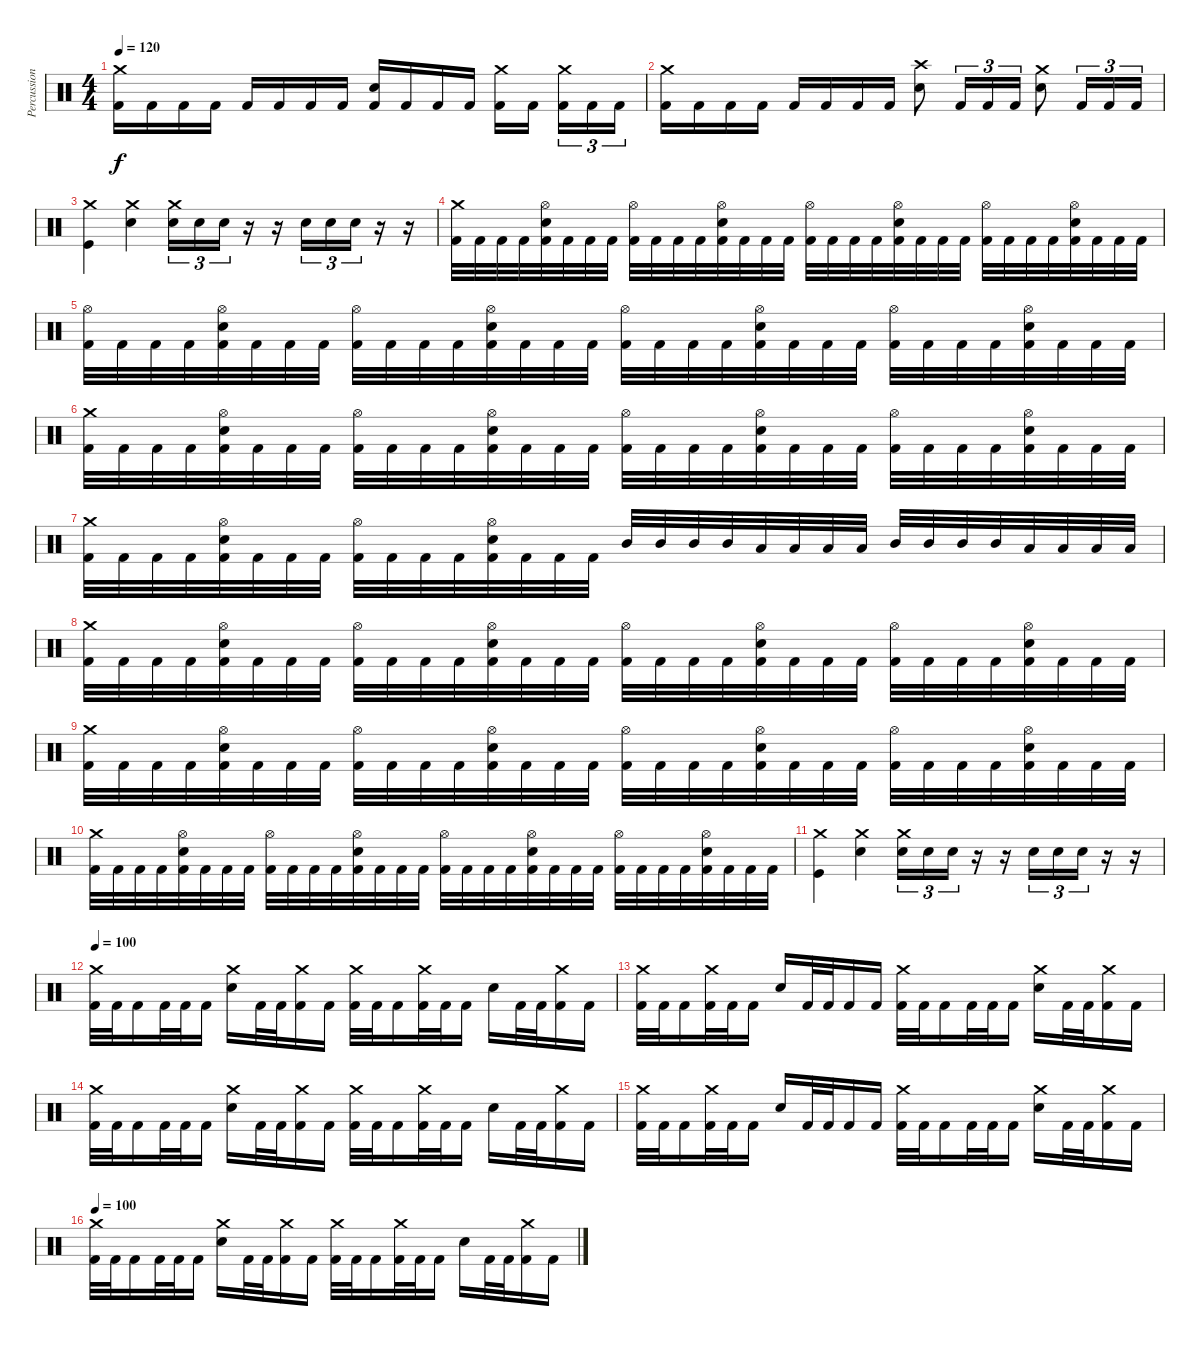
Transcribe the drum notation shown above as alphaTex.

\track ("Percussion" "Percussion") {instrument percussion}
\staff {score}
\articulation defaults
\ts (4 4)
\tempo 120
\clef neutral
\ks c
("Crash medium (hit)" "Kick (hit) 2").16{dy f} "Kick (hit) 2".16 "Kick (hit) 2".16 "Kick (hit) 2".16 "Kick (hit) 2".16 "Kick (hit) 2".16 "Kick (hit) 2".16 "Kick (hit) 2".16 ("Kick (hit) 2" "Electric Snare (hit)").16 "Kick (hit) 2".16 "Kick (hit) 2".16 "Kick (hit) 2".16 ("Crash medium (hit)" "Kick (hit) 2").16 "Kick (hit) 2".16{beam splitsecondary} ("Crash medium (hit)" "Kick (hit) 2").16{tu (3 2)} "Kick (hit) 2".16{tu (3 2)} "Kick (hit) 2".16{tu (3 2)} |
("Crash medium (hit)" "Kick (hit) 2").16 "Kick (hit) 2".16 "Kick (hit) 2".16 "Kick (hit) 2".16 "Kick (hit) 2".16 "Kick (hit) 2".16 "Kick (hit) 2".16 "Kick (hit) 2".16 ("Crash high (hit)" "Snare (hit) 2").8 "Kick (hit) 2".16{tu (3 2)} "Kick (hit) 2".16{tu (3 2)} "Kick (hit) 2".16{tu (3 2)} ("Crash medium (hit)" "Snare (hit) 2").8 "Kick (hit) 2".16{tu (3 2)} "Kick (hit) 2".16{tu (3 2)} "Kick (hit) 2".16{tu (3 2)} |
("Crash medium (hit)" "Kick (hit)").4 ("Crash medium (hit)" "Electric Snare (hit)").4 ("Crash medium (hit)" "Electric Snare (hit)").16{tu (3 2)} "Electric Snare (hit)".16{tu (3 2)} "Electric Snare (hit)".16{tu (3 2)} r.16 r.16 "Electric Snare (hit)".16{tu (3 2)} "Electric Snare (hit)".16{tu (3 2)} "Electric Snare (hit)".16{tu (3 2)} r.16 r.16 |
("Crash medium (hit)" "Kick (hit) 2").32 "Kick (hit) 2".32 "Kick (hit) 2".32 "Kick (hit) 2".32 ("Hi-Hat (open)" "Kick (hit) 2" "Electric Snare (hit)").32 "Kick (hit) 2".32 "Kick (hit) 2".32 "Kick (hit) 2".32 ("Hi-Hat (open)" "Kick (hit) 2").32 "Kick (hit) 2".32 "Kick (hit) 2".32 "Kick (hit) 2".32 ("Hi-Hat (open)" "Kick (hit) 2" "Electric Snare (hit)").32 "Kick (hit) 2".32 "Kick (hit) 2".32 "Kick (hit) 2".32 ("Hi-Hat (open)" "Kick (hit) 2").32 "Kick (hit) 2".32 "Kick (hit) 2".32 "Kick (hit) 2".32 ("Hi-Hat (open)" "Kick (hit) 2" "Electric Snare (hit)").32 "Kick (hit) 2".32 "Kick (hit) 2".32 "Kick (hit) 2".32 ("Hi-Hat (open)" "Kick (hit) 2").32 "Kick (hit) 2".32 "Kick (hit) 2".32 "Kick (hit) 2".32 ("Hi-Hat (open)" "Kick (hit) 2" "Electric Snare (hit)").32 "Kick (hit) 2".32 "Kick (hit) 2".32 "Kick (hit) 2".32 |
("Hi-Hat (open)" "Kick (hit) 2").32 "Kick (hit) 2".32 "Kick (hit) 2".32 "Kick (hit) 2".32 ("Hi-Hat (open)" "Kick (hit) 2" "Electric Snare (hit)").32 "Kick (hit) 2".32 "Kick (hit) 2".32 "Kick (hit) 2".32 ("Hi-Hat (open)" "Kick (hit) 2").32 "Kick (hit) 2".32 "Kick (hit) 2".32 "Kick (hit) 2".32 ("Hi-Hat (open)" "Kick (hit) 2" "Electric Snare (hit)").32 "Kick (hit) 2".32 "Kick (hit) 2".32 "Kick (hit) 2".32 ("Hi-Hat (open)" "Kick (hit) 2").32 "Kick (hit) 2".32 "Kick (hit) 2".32 "Kick (hit) 2".32 ("Hi-Hat (open)" "Kick (hit) 2" "Electric Snare (hit)").32 "Kick (hit) 2".32 "Kick (hit) 2".32 "Kick (hit) 2".32 ("Hi-Hat (open)" "Kick (hit) 2").32 "Kick (hit) 2".32 "Kick (hit) 2".32 "Kick (hit) 2".32 ("Hi-Hat (open)" "Kick (hit) 2" "Electric Snare (hit)").32 "Kick (hit) 2".32 "Kick (hit) 2".32 "Kick (hit) 2".32 |
("Crash medium (hit)" "Kick (hit) 2").32 "Kick (hit) 2".32 "Kick (hit) 2".32 "Kick (hit) 2".32 ("Hi-Hat (open)" "Kick (hit) 2" "Electric Snare (hit)").32 "Kick (hit) 2".32 "Kick (hit) 2".32 "Kick (hit) 2".32 ("Hi-Hat (open)" "Kick (hit) 2").32 "Kick (hit) 2".32 "Kick (hit) 2".32 "Kick (hit) 2".32 ("Hi-Hat (open)" "Kick (hit) 2" "Electric Snare (hit)").32 "Kick (hit) 2".32 "Kick (hit) 2".32 "Kick (hit) 2".32 ("Hi-Hat (open)" "Kick (hit) 2").32 "Kick (hit) 2".32 "Kick (hit) 2".32 "Kick (hit) 2".32 ("Hi-Hat (open)" "Kick (hit) 2" "Electric Snare (hit)").32 "Kick (hit) 2".32 "Kick (hit) 2".32 "Kick (hit) 2".32 ("Hi-Hat (open)" "Kick (hit) 2").32 "Kick (hit) 2".32 "Kick (hit) 2".32 "Kick (hit) 2".32 ("Hi-Hat (open)" "Kick (hit) 2" "Electric Snare (hit)").32 "Kick (hit) 2".32 "Kick (hit) 2".32 "Kick (hit) 2".32 |
("Crash medium (hit)" "Kick (hit) 2").32 "Kick (hit) 2".32 "Kick (hit) 2".32 "Kick (hit) 2".32 ("Hi-Hat (open)" "Kick (hit) 2" "Electric Snare (hit)").32 "Kick (hit) 2".32 "Kick (hit) 2".32 "Kick (hit) 2".32 ("Hi-Hat (open)" "Kick (hit) 2").32 "Kick (hit) 2".32 "Kick (hit) 2".32 "Kick (hit) 2".32 ("Hi-Hat (open)" "Kick (hit) 2" "Electric Snare (hit)").32 "Kick (hit) 2".32 "Kick (hit) 2".32 "Kick (hit) 2".32 "Mid Tom (hit)".32 "Mid Tom (hit)".32 "Mid Tom (hit)".32 "Mid Tom (hit)".32 "Low Tom (hit)".32 "Low Tom (hit)".32 "Low Tom (hit)".32 "Low Tom (hit)".32 "Mid Tom (hit)".32 "Mid Tom (hit)".32 "Mid Tom (hit)".32 "Mid Tom (hit)".32 "Low Tom (hit)".32 "Low Tom (hit)".32 "Low Tom (hit)".32 "Low Tom (hit)".32 |
("Crash medium (hit)" "Kick (hit) 2").32 "Kick (hit) 2".32 "Kick (hit) 2".32 "Kick (hit) 2".32 ("Hi-Hat (open)" "Kick (hit) 2" "Electric Snare (hit)").32 "Kick (hit) 2".32 "Kick (hit) 2".32 "Kick (hit) 2".32 ("Hi-Hat (open)" "Kick (hit) 2").32 "Kick (hit) 2".32 "Kick (hit) 2".32 "Kick (hit) 2".32 ("Hi-Hat (open)" "Kick (hit) 2" "Electric Snare (hit)").32 "Kick (hit) 2".32 "Kick (hit) 2".32 "Kick (hit) 2".32 ("Hi-Hat (open)" "Kick (hit) 2").32 "Kick (hit) 2".32 "Kick (hit) 2".32 "Kick (hit) 2".32 ("Hi-Hat (open)" "Kick (hit) 2" "Electric Snare (hit)").32 "Kick (hit) 2".32 "Kick (hit) 2".32 "Kick (hit) 2".32 ("Hi-Hat (open)" "Kick (hit) 2").32 "Kick (hit) 2".32 "Kick (hit) 2".32 "Kick (hit) 2".32 ("Hi-Hat (open)" "Kick (hit) 2" "Electric Snare (hit)").32 "Kick (hit) 2".32 "Kick (hit) 2".32 "Kick (hit) 2".32 |
("Crash medium (hit)" "Kick (hit) 2").32 "Kick (hit) 2".32 "Kick (hit) 2".32 "Kick (hit) 2".32 ("Hi-Hat (open)" "Kick (hit) 2" "Electric Snare (hit)").32 "Kick (hit) 2".32 "Kick (hit) 2".32 "Kick (hit) 2".32 ("Hi-Hat (open)" "Kick (hit) 2").32 "Kick (hit) 2".32 "Kick (hit) 2".32 "Kick (hit) 2".32 ("Hi-Hat (open)" "Kick (hit) 2" "Electric Snare (hit)").32 "Kick (hit) 2".32 "Kick (hit) 2".32 "Kick (hit) 2".32 ("Hi-Hat (open)" "Kick (hit) 2").32 "Kick (hit) 2".32 "Kick (hit) 2".32 "Kick (hit) 2".32 ("Hi-Hat (open)" "Kick (hit) 2" "Electric Snare (hit)").32 "Kick (hit) 2".32 "Kick (hit) 2".32 "Kick (hit) 2".32 ("Hi-Hat (open)" "Kick (hit) 2").32 "Kick (hit) 2".32 "Kick (hit) 2".32 "Kick (hit) 2".32 ("Hi-Hat (open)" "Kick (hit) 2" "Electric Snare (hit)").32 "Kick (hit) 2".32 "Kick (hit) 2".32 "Kick (hit) 2".32 |
("Crash medium (hit)" "Kick (hit) 2").32 "Kick (hit) 2".32 "Kick (hit) 2".32 "Kick (hit) 2".32 ("Hi-Hat (open)" "Kick (hit) 2" "Electric Snare (hit)").32 "Kick (hit) 2".32 "Kick (hit) 2".32 "Kick (hit) 2".32 ("Hi-Hat (open)" "Kick (hit) 2").32 "Kick (hit) 2".32 "Kick (hit) 2".32 "Kick (hit) 2".32 ("Hi-Hat (open)" "Kick (hit) 2" "Electric Snare (hit)").32 "Kick (hit) 2".32 "Kick (hit) 2".32 "Kick (hit) 2".32 ("Hi-Hat (open)" "Kick (hit) 2").32 "Kick (hit) 2".32 "Kick (hit) 2".32 "Kick (hit) 2".32 ("Hi-Hat (open)" "Kick (hit) 2" "Electric Snare (hit)").32 "Kick (hit) 2".32 "Kick (hit) 2".32 "Kick (hit) 2".32 ("Hi-Hat (open)" "Kick (hit) 2").32 "Kick (hit) 2".32 "Kick (hit) 2".32 "Kick (hit) 2".32 ("Hi-Hat (open)" "Kick (hit) 2" "Electric Snare (hit)").32 "Kick (hit) 2".32 "Kick (hit) 2".32 "Kick (hit) 2".32 |
("Crash medium (hit)" "Kick (hit)").4 ("Crash medium (hit)" "Electric Snare (hit)").4 ("Crash medium (hit)" "Electric Snare (hit)").16{tu (3 2)} "Electric Snare (hit)".16{tu (3 2)} "Electric Snare (hit)".16{tu (3 2)} r.16 r.16 "Electric Snare (hit)".16{tu (3 2)} "Electric Snare (hit)".16{tu (3 2)} "Electric Snare (hit)".16{tu (3 2)} r.16 r.16 |
\tempo 100
("Crash medium (hit)" "Kick (hit) 2").32 "Kick (hit) 2".32 "Kick (hit) 2".16 "Kick (hit) 2".32 "Kick (hit) 2".32 "Kick (hit) 2".16 ("Crash medium (hit)" "Electric Snare (hit)").16 "Kick (hit) 2".32 "Kick (hit) 2".32 ("Crash medium (hit)" "Kick (hit) 2").16 "Kick (hit) 2".16 ("Crash medium (hit)" "Kick (hit) 2").32 "Kick (hit) 2".32 "Kick (hit) 2".16 ("Crash medium (hit)" "Kick (hit) 2").32 "Kick (hit) 2".32 "Kick (hit) 2".16 "Electric Snare (hit)".16 "Kick (hit) 2".32 "Kick (hit) 2".32 ("Crash medium (hit)" "Kick (hit) 2").16 "Kick (hit) 2".16 |
("Crash medium (hit)" "Kick (hit) 2").32 "Kick (hit) 2".32 "Kick (hit) 2".16 ("Crash medium (hit)" "Kick (hit) 2").32 "Kick (hit) 2".32 "Kick (hit) 2".16 "Electric Snare (hit)".16 "Kick (hit) 2".32 "Kick (hit) 2".32 "Kick (hit) 2".16 "Kick (hit) 2".16 ("Crash medium (hit)" "Kick (hit) 2").32 "Kick (hit) 2".32 "Kick (hit) 2".16 "Kick (hit) 2".32 "Kick (hit) 2".32 "Kick (hit) 2".16 ("Crash medium (hit)" "Electric Snare (hit)").16 "Kick (hit) 2".32 "Kick (hit) 2".32 ("Crash medium (hit)" "Kick (hit) 2").16 "Kick (hit) 2".16 |
("Crash medium (hit)" "Kick (hit) 2").32 "Kick (hit) 2".32 "Kick (hit) 2".16 "Kick (hit) 2".32 "Kick (hit) 2".32 "Kick (hit) 2".16 ("Crash medium (hit)" "Electric Snare (hit)").16 "Kick (hit) 2".32 "Kick (hit) 2".32 ("Crash medium (hit)" "Kick (hit) 2").16 "Kick (hit) 2".16 ("Crash medium (hit)" "Kick (hit) 2").32 "Kick (hit) 2".32 "Kick (hit) 2".16 ("Crash medium (hit)" "Kick (hit) 2").32 "Kick (hit) 2".32 "Kick (hit) 2".16 "Electric Snare (hit)".16 "Kick (hit) 2".32 "Kick (hit) 2".32 ("Crash medium (hit)" "Kick (hit) 2").16 "Kick (hit) 2".16 |
("Crash medium (hit)" "Kick (hit) 2").32 "Kick (hit) 2".32 "Kick (hit) 2".16 ("Crash medium (hit)" "Kick (hit) 2").32 "Kick (hit) 2".32 "Kick (hit) 2".16 "Electric Snare (hit)".16 "Kick (hit) 2".32 "Kick (hit) 2".32 "Kick (hit) 2".16 "Kick (hit) 2".16 ("Crash medium (hit)" "Kick (hit) 2").32 "Kick (hit) 2".32 "Kick (hit) 2".16 "Kick (hit) 2".32 "Kick (hit) 2".32 "Kick (hit) 2".16 ("Crash medium (hit)" "Electric Snare (hit)").16 "Kick (hit) 2".32 "Kick (hit) 2".32 ("Crash medium (hit)" "Kick (hit) 2").16 "Kick (hit) 2".16 |
\tempo 100
("Crash medium (hit)" "Kick (hit) 2").32 "Kick (hit) 2".32 "Kick (hit) 2".16 "Kick (hit) 2".32 "Kick (hit) 2".32 "Kick (hit) 2".16 ("Crash medium (hit)" "Electric Snare (hit)").16 "Kick (hit) 2".32 "Kick (hit) 2".32 ("Crash medium (hit)" "Kick (hit) 2").16 "Kick (hit) 2".16 ("Crash medium (hit)" "Kick (hit) 2").32 "Kick (hit) 2".32 "Kick (hit) 2".16 ("Crash medium (hit)" "Kick (hit) 2").32 "Kick (hit) 2".32 "Kick (hit) 2".16 "Electric Snare (hit)".16 "Kick (hit) 2".32 "Kick (hit) 2".32 ("Crash medium (hit)" "Kick (hit) 2").16 "Kick (hit) 2".16
